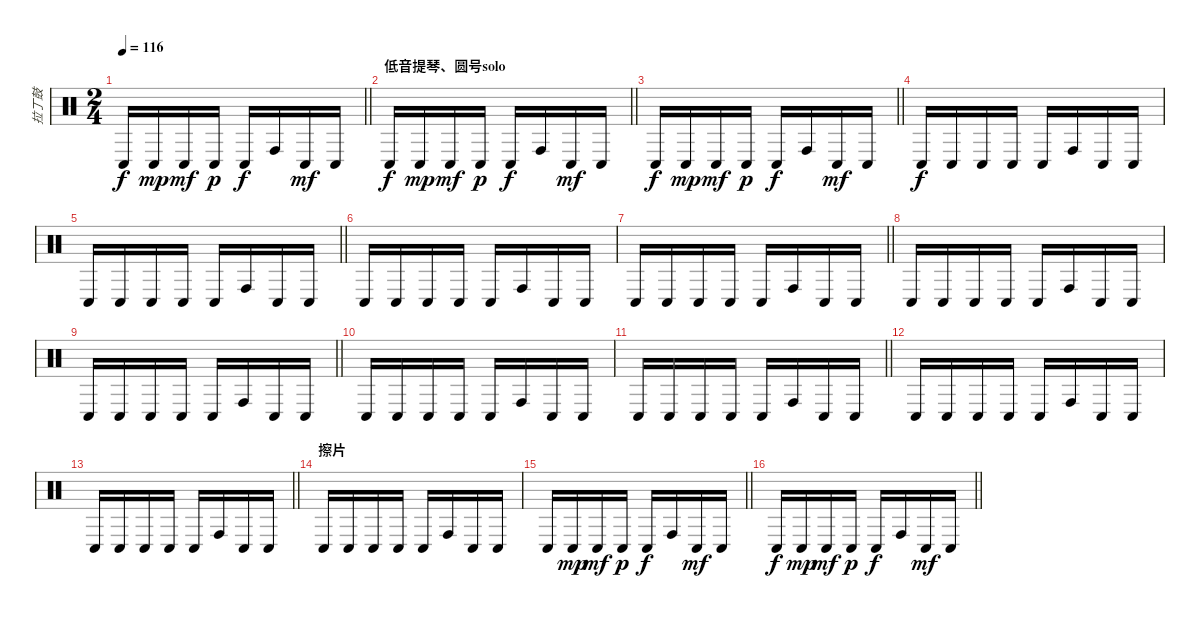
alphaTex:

\track ("拉丁鼓" "拉丁鼓") {instrument percussion}
\staff {score}
\articulation defaults
\ts (2 4)
\tempo 116
\clef neutral
\barLineRight lightlight
\ks c "Conga low (hit)".16{dy f} "Conga low (hit)".16{dy mp} "Conga low (hit)".16{dy mf} "Conga low (hit)".16{dy p} "Conga low (hit)".16{dy f} "Conga high (hit)".16 "Conga low (hit)".16{dy mf} "Conga low (hit)".16
|
\section ("" "低音提琴、圆号solo")
\barLineRight lightlight "Conga low (hit)".16{dy f} "Conga low (hit)".16{dy mp} "Conga low (hit)".16{dy mf} "Conga low (hit)".16{dy p} "Conga low (hit)".16{dy f} "Conga high (hit)".16 "Conga low (hit)".16{dy mf} "Conga low (hit)".16
|
\barLineRight lightlight "Conga low (hit)".16{dy f} "Conga low (hit)".16{dy mp} "Conga low (hit)".16{dy mf} "Conga low (hit)".16{dy p} "Conga low (hit)".16{dy f} "Conga high (hit)".16 "Conga low (hit)".16{dy mf} "Conga low (hit)".16
|
"Conga low (hit)".16{dy f} "Conga low (hit)".16 "Conga low (hit)".16 "Conga low (hit)".16 "Conga low (hit)".16 "Conga high (hit)".16 "Conga low (hit)".16 "Conga low (hit)".16 |
\barLineRight lightlight "Conga low (hit)".16 "Conga low (hit)".16 "Conga low (hit)".16 "Conga low (hit)".16 "Conga low (hit)".16 "Conga high (hit)".16 "Conga low (hit)".16 "Conga low (hit)".16
|
"Conga low (hit)".16 "Conga low (hit)".16 "Conga low (hit)".16 "Conga low (hit)".16 "Conga low (hit)".16 "Conga high (hit)".16 "Conga low (hit)".16 "Conga low (hit)".16 |
\barLineRight lightlight "Conga low (hit)".16 "Conga low (hit)".16 "Conga low (hit)".16 "Conga low (hit)".16 "Conga low (hit)".16 "Conga high (hit)".16 "Conga low (hit)".16 "Conga low (hit)".16
|
"Conga low (hit)".16 "Conga low (hit)".16 "Conga low (hit)".16 "Conga low (hit)".16 "Conga low (hit)".16 "Conga high (hit)".16 "Conga low (hit)".16 "Conga low (hit)".16 |
\barLineRight lightlight "Conga low (hit)".16 "Conga low (hit)".16 "Conga low (hit)".16 "Conga low (hit)".16 "Conga low (hit)".16 "Conga high (hit)".16 "Conga low (hit)".16 "Conga low (hit)".16
|
"Conga low (hit)".16 "Conga low (hit)".16 "Conga low (hit)".16 "Conga low (hit)".16 "Conga low (hit)".16 "Conga high (hit)".16 "Conga low (hit)".16 "Conga low (hit)".16 |
\barLineRight lightlight "Conga low (hit)".16 "Conga low (hit)".16 "Conga low (hit)".16 "Conga low (hit)".16 "Conga low (hit)".16 "Conga high (hit)".16 "Conga low (hit)".16 "Conga low (hit)".16
|
"Conga low (hit)".16 "Conga low (hit)".16 "Conga low (hit)".16 "Conga low (hit)".16 "Conga low (hit)".16 "Conga high (hit)".16 "Conga low (hit)".16 "Conga low (hit)".16 |
\barLineRight lightlight "Conga low (hit)".16 "Conga low (hit)".16 "Conga low (hit)".16 "Conga low (hit)".16 "Conga low (hit)".16 "Conga high (hit)".16 "Conga low (hit)".16 "Conga low (hit)".16
|
\section ("" "擦片")
"Conga low (hit)".16 "Conga low (hit)".16 "Conga low (hit)".16 "Conga low (hit)".16 "Conga low (hit)".16 "Conga high (hit)".16 "Conga low (hit)".16 "Conga low (hit)".16 |
\barLineRight lightlight "Conga low (hit)".16 "Conga low (hit)".16{dy mp} "Conga low (hit)".16{dy mf} "Conga low (hit)".16{dy p} "Conga low (hit)".16{dy f} "Conga high (hit)".16 "Conga low (hit)".16{dy mf} "Conga low (hit)".16
|
\barLineRight lightlight "Conga low (hit)".16{dy f} "Conga low (hit)".16{dy mp} "Conga low (hit)".16{dy mf} "Conga low (hit)".16{dy p} "Conga low (hit)".16{dy f} "Conga high (hit)".16 "Conga low (hit)".16{dy mf} "Conga low (hit)".16
